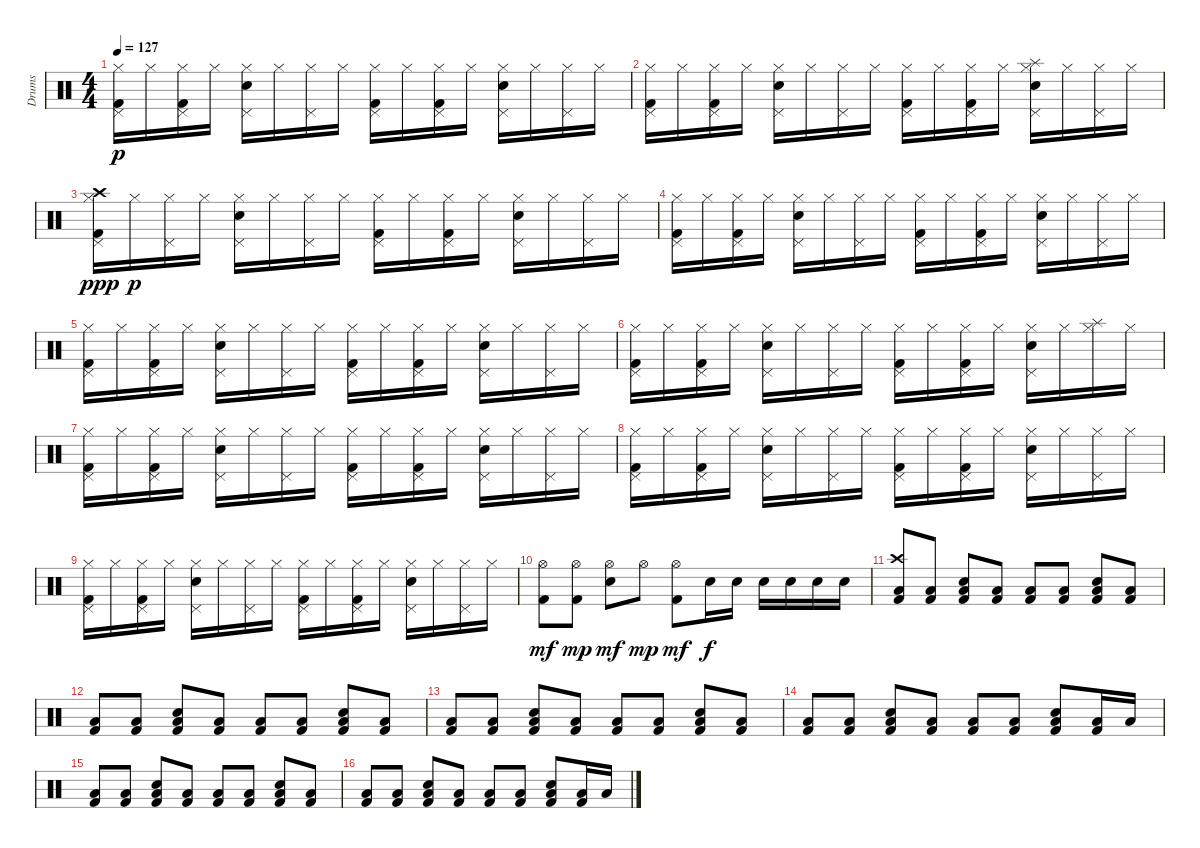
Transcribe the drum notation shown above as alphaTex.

\track ("Drums" "Drums") {instrument percussion}
\staff {score}
\articulation defaults
\ts (4 4)
\tempo 127
\clef neutral
\ks c
("Pedal Hi-Hat (hit)" "Hi-Hat (closed)" "Kick (hit) 2").16{dy p} "Hi-Hat (closed)".16 ("Pedal Hi-Hat (hit)" "Hi-Hat (closed)" "Kick (hit) 2").16 "Hi-Hat (closed)".16 ("Pedal Hi-Hat (hit)" "Hi-Hat (closed)" "Electric Snare (hit)").16 "Hi-Hat (closed)".16 ("Pedal Hi-Hat (hit)" "Hi-Hat (closed)").16 "Hi-Hat (closed)".16 ("Pedal Hi-Hat (hit)" "Hi-Hat (closed)" "Kick (hit) 2").16 "Hi-Hat (closed)".16 ("Pedal Hi-Hat (hit)" "Hi-Hat (closed)" "Kick (hit) 2").16 "Hi-Hat (closed)".16 ("Pedal Hi-Hat (hit)" "Hi-Hat (closed)" "Electric Snare (hit)").16 "Hi-Hat (closed)".16 ("Pedal Hi-Hat (hit)" "Hi-Hat (closed)").16 "Hi-Hat (closed)".16 |
("Pedal Hi-Hat (hit)" "Hi-Hat (closed)" "Kick (hit) 2").16 "Hi-Hat (closed)".16 ("Pedal Hi-Hat (hit)" "Hi-Hat (closed)" "Kick (hit) 2").16 "Hi-Hat (closed)".16 ("Pedal Hi-Hat (hit)" "Hi-Hat (closed)" "Electric Snare (hit)").16 "Hi-Hat (closed)".16 ("Pedal Hi-Hat (hit)" "Hi-Hat (closed)").16 "Hi-Hat (closed)".16 ("Pedal Hi-Hat (hit)" "Hi-Hat (closed)" "Kick (hit) 2").16 "Hi-Hat (closed)".16 ("Pedal Hi-Hat (hit)" "Hi-Hat (closed)" "Kick (hit) 2").16 "Hi-Hat (closed)".16 ("Splash (hit)" "Pedal Hi-Hat (hit)" "Hi-Hat (closed)" "Electric Snare (hit)").16 "Hi-Hat (closed)".16 ("Pedal Hi-Hat (hit)" "Hi-Hat (closed)").16 "Hi-Hat (closed)".16 |
("Crash high (hit)" "Pedal Hi-Hat (hit)" "Hi-Hat (closed)" "Kick (hit) 2").16{dy ppp} "Hi-Hat (closed)".16{dy p} ("Pedal Hi-Hat (hit)" "Hi-Hat (closed)").16 "Hi-Hat (closed)".16 ("Pedal Hi-Hat (hit)" "Hi-Hat (closed)" "Electric Snare (hit)").16 "Hi-Hat (closed)".16 ("Pedal Hi-Hat (hit)" "Hi-Hat (closed)").16 "Hi-Hat (closed)".16 ("Pedal Hi-Hat (hit)" "Hi-Hat (closed)" "Kick (hit) 2").16 "Hi-Hat (closed)".16 ("Pedal Hi-Hat (hit)" "Hi-Hat (closed)" "Kick (hit) 2").16 "Hi-Hat (closed)".16 ("Pedal Hi-Hat (hit)" "Hi-Hat (closed)" "Electric Snare (hit)").16 "Hi-Hat (closed)".16 ("Pedal Hi-Hat (hit)" "Hi-Hat (closed)").16 "Hi-Hat (closed)".16 |
("Pedal Hi-Hat (hit)" "Hi-Hat (closed)" "Kick (hit) 2").16 "Hi-Hat (closed)".16 ("Pedal Hi-Hat (hit)" "Hi-Hat (closed)" "Kick (hit) 2").16 "Hi-Hat (closed)".16 ("Pedal Hi-Hat (hit)" "Hi-Hat (closed)" "Electric Snare (hit)").16 "Hi-Hat (closed)".16 ("Pedal Hi-Hat (hit)" "Hi-Hat (closed)").16 "Hi-Hat (closed)".16 ("Pedal Hi-Hat (hit)" "Hi-Hat (closed)" "Kick (hit) 2").16 "Hi-Hat (closed)".16 ("Pedal Hi-Hat (hit)" "Hi-Hat (closed)" "Kick (hit) 2").16 "Hi-Hat (closed)".16 ("Pedal Hi-Hat (hit)" "Hi-Hat (closed)" "Electric Snare (hit)").16 "Hi-Hat (closed)".16 ("Pedal Hi-Hat (hit)" "Hi-Hat (closed)").16 "Hi-Hat (closed)".16 |
("Pedal Hi-Hat (hit)" "Hi-Hat (closed)" "Kick (hit) 2").16 "Hi-Hat (closed)".16 ("Pedal Hi-Hat (hit)" "Hi-Hat (closed)" "Kick (hit) 2").16 "Hi-Hat (closed)".16 ("Pedal Hi-Hat (hit)" "Hi-Hat (closed)" "Electric Snare (hit)").16 "Hi-Hat (closed)".16 ("Pedal Hi-Hat (hit)" "Hi-Hat (closed)").16 "Hi-Hat (closed)".16 ("Pedal Hi-Hat (hit)" "Hi-Hat (closed)" "Kick (hit) 2").16 "Hi-Hat (closed)".16 ("Pedal Hi-Hat (hit)" "Hi-Hat (closed)" "Kick (hit) 2").16 "Hi-Hat (closed)".16 ("Pedal Hi-Hat (hit)" "Hi-Hat (closed)" "Electric Snare (hit)").16 "Hi-Hat (closed)".16 ("Pedal Hi-Hat (hit)" "Hi-Hat (closed)").16 "Hi-Hat (closed)".16 |
("Pedal Hi-Hat (hit)" "Hi-Hat (closed)" "Kick (hit) 2").16 "Hi-Hat (closed)".16 ("Pedal Hi-Hat (hit)" "Hi-Hat (closed)" "Kick (hit) 2").16 "Hi-Hat (closed)".16 ("Pedal Hi-Hat (hit)" "Hi-Hat (closed)" "Electric Snare (hit)").16 "Hi-Hat (closed)".16 ("Pedal Hi-Hat (hit)" "Hi-Hat (closed)").16 "Hi-Hat (closed)".16 ("Pedal Hi-Hat (hit)" "Hi-Hat (closed)" "Kick (hit) 2").16 "Hi-Hat (closed)".16 ("Pedal Hi-Hat (hit)" "Hi-Hat (closed)" "Kick (hit) 2").16 "Hi-Hat (closed)".16 ("Pedal Hi-Hat (hit)" "Hi-Hat (closed)" "Electric Snare (hit)").16 "Hi-Hat (closed)".16 ("Splash (hit)" "Hi-Hat (closed)").16 "Hi-Hat (closed)".16 |
("Pedal Hi-Hat (hit)" "Hi-Hat (closed)" "Kick (hit) 2").16 "Hi-Hat (closed)".16 ("Pedal Hi-Hat (hit)" "Hi-Hat (closed)" "Kick (hit) 2").16 "Hi-Hat (closed)".16 ("Pedal Hi-Hat (hit)" "Hi-Hat (closed)" "Electric Snare (hit)").16 "Hi-Hat (closed)".16 ("Pedal Hi-Hat (hit)" "Hi-Hat (closed)").16 "Hi-Hat (closed)".16 ("Pedal Hi-Hat (hit)" "Hi-Hat (closed)" "Kick (hit) 2").16 "Hi-Hat (closed)".16 ("Pedal Hi-Hat (hit)" "Hi-Hat (closed)" "Kick (hit) 2").16 "Hi-Hat (closed)".16 ("Pedal Hi-Hat (hit)" "Hi-Hat (closed)" "Electric Snare (hit)").16 "Hi-Hat (closed)".16 ("Pedal Hi-Hat (hit)" "Hi-Hat (closed)").16 "Hi-Hat (closed)".16 |
("Pedal Hi-Hat (hit)" "Hi-Hat (closed)" "Kick (hit) 2").16 "Hi-Hat (closed)".16 ("Pedal Hi-Hat (hit)" "Hi-Hat (closed)" "Kick (hit) 2").16 "Hi-Hat (closed)".16 ("Pedal Hi-Hat (hit)" "Hi-Hat (closed)" "Electric Snare (hit)").16 "Hi-Hat (closed)".16 ("Pedal Hi-Hat (hit)" "Hi-Hat (closed)").16 "Hi-Hat (closed)".16 ("Pedal Hi-Hat (hit)" "Hi-Hat (closed)" "Kick (hit) 2").16 "Hi-Hat (closed)".16 ("Pedal Hi-Hat (hit)" "Hi-Hat (closed)" "Kick (hit) 2").16 "Hi-Hat (closed)".16 ("Pedal Hi-Hat (hit)" "Hi-Hat (closed)" "Electric Snare (hit)").16 "Hi-Hat (closed)".16 ("Pedal Hi-Hat (hit)" "Hi-Hat (closed)").16 "Hi-Hat (closed)".16 |
("Pedal Hi-Hat (hit)" "Hi-Hat (closed)" "Kick (hit) 2").16 "Hi-Hat (closed)".16 ("Pedal Hi-Hat (hit)" "Hi-Hat (closed)" "Kick (hit) 2").16 "Hi-Hat (closed)".16 ("Pedal Hi-Hat (hit)" "Hi-Hat (closed)" "Electric Snare (hit)").16 "Hi-Hat (closed)".16 ("Pedal Hi-Hat (hit)" "Hi-Hat (closed)").16 "Hi-Hat (closed)".16 ("Pedal Hi-Hat (hit)" "Hi-Hat (closed)" "Kick (hit) 2").16 "Hi-Hat (closed)".16 ("Pedal Hi-Hat (hit)" "Hi-Hat (closed)" "Kick (hit) 2").16 "Hi-Hat (closed)".16 ("Pedal Hi-Hat (hit)" "Hi-Hat (closed)" "Electric Snare (hit)").16 "Hi-Hat (closed)".16 ("Pedal Hi-Hat (hit)" "Hi-Hat (closed)").16 "Hi-Hat (closed)".16 |
("Hi-Hat (open)" "Kick (hit) 2").8{dy mf} ("Hi-Hat (open)" "Kick (hit) 2").8{dy mp} ("Hi-Hat (open)" "Electric Snare (hit)").8{dy mf} "Hi-Hat (open)".8{dy mp} ("Hi-Hat (open)" "Kick (hit) 2").8{dy mf} "Electric Snare (hit)".16{dy f} "Electric Snare (hit)".16 "Electric Snare (hit)".16 "Electric Snare (hit)".16 "Electric Snare (hit)".16 "Electric Snare (hit)".16 |
("Crash high (hit)" "Low Floor Tom (hit)" "Kick (hit) 2").8 ("Low Floor Tom (hit)" "Kick (hit) 2").8 ("Electric Snare (hit)" "Low Floor Tom (hit)" "Kick (hit) 2").8 ("Low Floor Tom (hit)" "Kick (hit) 2").8 ("Low Floor Tom (hit)" "Kick (hit) 2").8 ("Low Floor Tom (hit)" "Kick (hit) 2").8 ("Electric Snare (hit)" "Low Floor Tom (hit)" "Kick (hit) 2").8 ("Low Floor Tom (hit)" "Kick (hit) 2").8 |
("Low Floor Tom (hit)" "Kick (hit) 2").8 ("Low Floor Tom (hit)" "Kick (hit) 2").8 ("Electric Snare (hit)" "Low Floor Tom (hit)" "Kick (hit) 2").8 ("Low Floor Tom (hit)" "Kick (hit) 2").8 ("Low Floor Tom (hit)" "Kick (hit) 2").8 ("Low Floor Tom (hit)" "Kick (hit) 2").8 ("Electric Snare (hit)" "Low Floor Tom (hit)" "Kick (hit) 2").8 ("Low Floor Tom (hit)" "Kick (hit) 2").8 |
("Low Floor Tom (hit)" "Kick (hit) 2").8 ("Low Floor Tom (hit)" "Kick (hit) 2").8 ("Electric Snare (hit)" "Low Floor Tom (hit)" "Kick (hit) 2").8 ("Low Floor Tom (hit)" "Kick (hit) 2").8 ("Low Floor Tom (hit)" "Kick (hit) 2").8 ("Low Floor Tom (hit)" "Kick (hit) 2").8 ("Electric Snare (hit)" "Low Floor Tom (hit)" "Kick (hit) 2").8 ("Low Floor Tom (hit)" "Kick (hit) 2").8 |
("Low Floor Tom (hit)" "Kick (hit) 2").8 ("Low Floor Tom (hit)" "Kick (hit) 2").8 ("Electric Snare (hit)" "Low Floor Tom (hit)" "Kick (hit) 2").8 ("Low Floor Tom (hit)" "Kick (hit) 2").8 ("Low Floor Tom (hit)" "Kick (hit) 2").8 ("Low Floor Tom (hit)" "Kick (hit) 2").8 ("Electric Snare (hit)" "Low Floor Tom (hit)" "Kick (hit) 2").8 ("Low Floor Tom (hit)" "Kick (hit) 2").16 "Low Floor Tom (hit)".16 |
("Low Floor Tom (hit)" "Kick (hit) 2").8 ("Low Floor Tom (hit)" "Kick (hit) 2").8 ("Electric Snare (hit)" "Low Floor Tom (hit)" "Kick (hit) 2").8 ("Low Floor Tom (hit)" "Kick (hit) 2").8 ("Low Floor Tom (hit)" "Kick (hit) 2").8 ("Low Floor Tom (hit)" "Kick (hit) 2").8 ("Electric Snare (hit)" "Low Floor Tom (hit)" "Kick (hit) 2").8 ("Low Floor Tom (hit)" "Kick (hit) 2").8 |
("Low Floor Tom (hit)" "Kick (hit) 2").8 ("Low Floor Tom (hit)" "Kick (hit) 2").8 ("Electric Snare (hit)" "Low Floor Tom (hit)" "Kick (hit) 2").8 ("Low Floor Tom (hit)" "Kick (hit) 2").8 ("Low Floor Tom (hit)" "Kick (hit) 2").8 ("Low Floor Tom (hit)" "Kick (hit) 2").8 ("Electric Snare (hit)" "Low Floor Tom (hit)" "Kick (hit) 2").8 ("Low Floor Tom (hit)" "Kick (hit) 2").16 "Low Floor Tom (hit)".16
